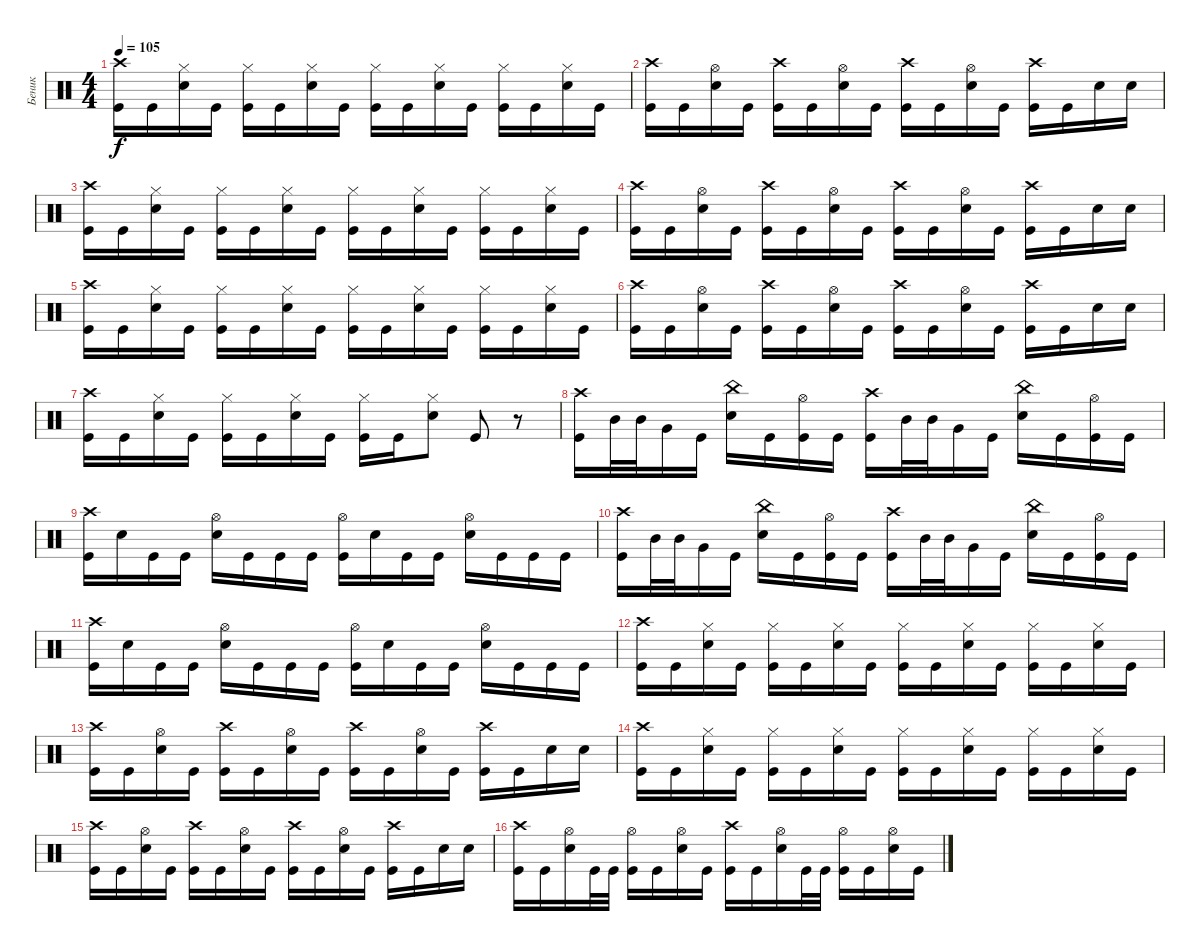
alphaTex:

\track ("Беник" "Беник") {instrument percussion}
\staff {score}
\articulation defaults
\ts (4 4)
\tempo 105
\clef neutral
\ks c
("Crash high (hit)" "Kick (hit)").16{dy f} "Kick (hit)".16 ("Snare (hit) 2" "Hi-Hat (closed)").16 "Kick (hit)".16 ("Kick (hit)" "Hi-Hat (closed)").16 "Kick (hit)".16 ("Snare (hit) 2" "Hi-Hat (closed)").16 "Kick (hit)".16 ("Kick (hit)" "Hi-Hat (closed)").16 "Kick (hit)".16 ("Snare (hit) 2" "Hi-Hat (closed)").16 "Kick (hit)".16 ("Kick (hit)" "Hi-Hat (closed)").16 "Kick (hit)".16 ("Snare (hit) 2" "Hi-Hat (closed)").16 "Kick (hit)".16 |
("Crash high (hit)" "Kick (hit)").16 "Kick (hit)".16 ("Snare (hit) 2" "Hi-Hat (open)").16 "Kick (hit)".16 ("Kick (hit)" "Crash high (hit)").16 "Kick (hit)".16 ("Snare (hit) 2" "Hi-Hat (open)").16 "Kick (hit)".16 ("Kick (hit)" "Crash high (hit)").16 "Kick (hit)".16 ("Snare (hit) 2" "Hi-Hat (open)").16 "Kick (hit)".16 ("Kick (hit)" "Crash high (hit)").16 "Kick (hit)".16 "Snare (hit) 2".16 "Snare (hit) 2".16 |
("Crash high (hit)" "Kick (hit)").16 "Kick (hit)".16 ("Snare (hit) 2" "Hi-Hat (closed)").16 "Kick (hit)".16 ("Kick (hit)" "Hi-Hat (closed)").16 "Kick (hit)".16 ("Snare (hit) 2" "Hi-Hat (closed)").16 "Kick (hit)".16 ("Kick (hit)" "Hi-Hat (closed)").16 "Kick (hit)".16 ("Snare (hit) 2" "Hi-Hat (closed)").16 "Kick (hit)".16 ("Kick (hit)" "Hi-Hat (closed)").16 "Kick (hit)".16 ("Snare (hit) 2" "Hi-Hat (closed)").16 "Kick (hit)".16 |
("Crash high (hit)" "Kick (hit)").16 "Kick (hit)".16 ("Snare (hit) 2" "Hi-Hat (open)").16 "Kick (hit)".16 ("Kick (hit)" "Crash high (hit)").16 "Kick (hit)".16 ("Snare (hit) 2" "Hi-Hat (open)").16 "Kick (hit)".16 ("Kick (hit)" "Crash high (hit)").16 "Kick (hit)".16 ("Snare (hit) 2" "Hi-Hat (open)").16 "Kick (hit)".16 ("Kick (hit)" "Crash high (hit)").16 "Kick (hit)".16 "Snare (hit) 2".16 "Snare (hit) 2".16 |
("Crash high (hit)" "Kick (hit)").16 "Kick (hit)".16 ("Snare (hit) 2" "Hi-Hat (closed)").16 "Kick (hit)".16 ("Kick (hit)" "Hi-Hat (closed)").16 "Kick (hit)".16 ("Snare (hit) 2" "Hi-Hat (closed)").16 "Kick (hit)".16 ("Kick (hit)" "Hi-Hat (closed)").16 "Kick (hit)".16 ("Snare (hit) 2" "Hi-Hat (closed)").16 "Kick (hit)".16 ("Kick (hit)" "Hi-Hat (closed)").16 "Kick (hit)".16 ("Snare (hit) 2" "Hi-Hat (closed)").16 "Kick (hit)".16 |
("Crash high (hit)" "Kick (hit)").16 "Kick (hit)".16 ("Snare (hit) 2" "Hi-Hat (open)").16 "Kick (hit)".16 ("Kick (hit)" "Crash high (hit)").16 "Kick (hit)".16 ("Snare (hit) 2" "Hi-Hat (open)").16 "Kick (hit)".16 ("Kick (hit)" "Crash high (hit)").16 "Kick (hit)".16 ("Snare (hit) 2" "Hi-Hat (open)").16 "Kick (hit)".16 ("Kick (hit)" "Crash high (hit)").16 "Kick (hit)".16 "Snare (hit) 2".16 "Snare (hit) 2".16 |
("Crash high (hit)" "Kick (hit)").16 "Kick (hit)".16 ("Snare (hit) 2" "Hi-Hat (closed)").16 "Kick (hit)".16 ("Kick (hit)" "Hi-Hat (closed)").16 "Kick (hit)".16 ("Snare (hit) 2" "Hi-Hat (closed)").16 "Kick (hit)".16 ("Kick (hit)" "Hi-Hat (closed)").16 "Kick (hit)".16 ("Snare (hit) 2" "Hi-Hat (closed)").8 "Kick (hit)".8 r.8 |
("Kick (hit)" "Crash high (hit)").16 "Mid Tom (hit)".32 "Mid Tom (hit)".32 "Very Low Tom (hit)".16 "Kick (hit)".16 ("Snare (hit) 2" "China (hit)").16 "Kick (hit)".16 ("Kick (hit)" "Hi-Hat (open)").16 "Kick (hit)".16 ("Kick (hit)" "Crash high (hit)").16 "Mid Tom (hit)".32 "Mid Tom (hit)".32 "Very Low Tom (hit)".16 "Kick (hit)".16 ("Snare (hit) 2" "China (hit)").16 "Kick (hit)".16 ("Kick (hit)" "Hi-Hat (open)").16 "Kick (hit)".16 |
("Kick (hit)" "Crash high (hit)").16 "Snare (hit) 2".16 "Kick (hit)".16 "Kick (hit)".16 ("Snare (hit) 2" "Hi-Hat (open)").16 "Kick (hit)".16 "Kick (hit)".16 "Kick (hit)".16 ("Kick (hit)" "Hi-Hat (open)").16 "Snare (hit) 2".16 "Kick (hit)".16 "Kick (hit)".16 ("Snare (hit) 2" "Hi-Hat (open)").16 "Kick (hit)".16 "Kick (hit)".16 "Kick (hit)".16 |
("Kick (hit)" "Crash high (hit)").16 "Mid Tom (hit)".32 "Mid Tom (hit)".32 "Very Low Tom (hit)".16 "Kick (hit)".16 ("Snare (hit) 2" "China (hit)").16 "Kick (hit)".16 ("Kick (hit)" "Hi-Hat (open)").16 "Kick (hit)".16 ("Kick (hit)" "Crash high (hit)").16 "Mid Tom (hit)".32 "Mid Tom (hit)".32 "Very Low Tom (hit)".16 "Kick (hit)".16 ("Snare (hit) 2" "China (hit)").16 "Kick (hit)".16 ("Kick (hit)" "Hi-Hat (open)").16 "Kick (hit)".16 |
("Kick (hit)" "Crash high (hit)").16 "Snare (hit) 2".16 "Kick (hit)".16 "Kick (hit)".16 ("Snare (hit) 2" "Hi-Hat (open)").16 "Kick (hit)".16 "Kick (hit)".16 "Kick (hit)".16 ("Kick (hit)" "Hi-Hat (open)").16 "Snare (hit) 2".16 "Kick (hit)".16 "Kick (hit)".16 ("Snare (hit) 2" "Hi-Hat (open)").16 "Kick (hit)".16 "Kick (hit)".16 "Kick (hit)".16 |
("Crash high (hit)" "Kick (hit)").16 "Kick (hit)".16 ("Snare (hit) 2" "Hi-Hat (closed)").16 "Kick (hit)".16 ("Kick (hit)" "Hi-Hat (closed)").16 "Kick (hit)".16 ("Snare (hit) 2" "Hi-Hat (closed)").16 "Kick (hit)".16 ("Kick (hit)" "Hi-Hat (closed)").16 "Kick (hit)".16 ("Snare (hit) 2" "Hi-Hat (closed)").16 "Kick (hit)".16 ("Kick (hit)" "Hi-Hat (closed)").16 "Kick (hit)".16 ("Snare (hit) 2" "Hi-Hat (closed)").16 "Kick (hit)".16 |
("Crash high (hit)" "Kick (hit)").16 "Kick (hit)".16 ("Snare (hit) 2" "Hi-Hat (open)").16 "Kick (hit)".16 ("Kick (hit)" "Crash high (hit)").16 "Kick (hit)".16 ("Snare (hit) 2" "Hi-Hat (open)").16 "Kick (hit)".16 ("Kick (hit)" "Crash high (hit)").16 "Kick (hit)".16 ("Snare (hit) 2" "Hi-Hat (open)").16 "Kick (hit)".16 ("Kick (hit)" "Crash high (hit)").16 "Kick (hit)".16 "Snare (hit) 2".16 "Snare (hit) 2".16 |
("Crash high (hit)" "Kick (hit)").16 "Kick (hit)".16 ("Snare (hit) 2" "Hi-Hat (closed)").16 "Kick (hit)".16 ("Kick (hit)" "Hi-Hat (closed)").16 "Kick (hit)".16 ("Snare (hit) 2" "Hi-Hat (closed)").16 "Kick (hit)".16 ("Kick (hit)" "Hi-Hat (closed)").16 "Kick (hit)".16 ("Snare (hit) 2" "Hi-Hat (closed)").16 "Kick (hit)".16 ("Kick (hit)" "Hi-Hat (closed)").16 "Kick (hit)".16 ("Snare (hit) 2" "Hi-Hat (closed)").16 "Kick (hit)".16 |
("Crash high (hit)" "Kick (hit)").16 "Kick (hit)".16 ("Snare (hit) 2" "Hi-Hat (open)").16 "Kick (hit)".16 ("Kick (hit)" "Crash high (hit)").16 "Kick (hit)".16 ("Snare (hit) 2" "Hi-Hat (open)").16 "Kick (hit)".16 ("Kick (hit)" "Crash high (hit)").16 "Kick (hit)".16 ("Snare (hit) 2" "Hi-Hat (open)").16 "Kick (hit)".16 ("Kick (hit)" "Crash high (hit)").16 "Kick (hit)".16 "Snare (hit) 2".16 "Snare (hit) 2".16 |
("Kick (hit)" "Crash high (hit)").16 "Kick (hit)".16 ("Snare (hit) 2" "Hi-Hat (open)").16 "Kick (hit)".32 "Kick (hit)".32 ("Kick (hit)" "Hi-Hat (open)").16 "Kick (hit)".16 ("Snare (hit) 2" "Hi-Hat (open)").16 "Kick (hit)".16 ("Kick (hit)" "Crash high (hit)").16 "Kick (hit)".16 ("Snare (hit) 2" "Hi-Hat (open)").16 "Kick (hit)".32 "Kick (hit)".32 ("Kick (hit)" "Hi-Hat (open)").16 "Kick (hit)".16 ("Snare (hit) 2" "Hi-Hat (open)").16 "Kick (hit)".16
